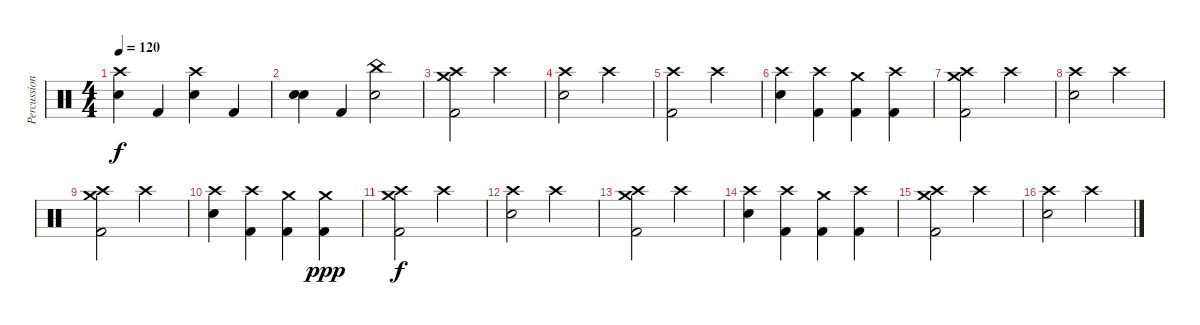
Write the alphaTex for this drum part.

\track ("Percussion" "Percussion") {instrument percussion}
\staff {score}
\articulation defaults
\ts (4 4)
\tempo 120
\clef neutral
\ks c
("Crash high (hit)" "Electric Snare (hit)").4{dy f} "Kick (hit) 2".4 ("Crash high (hit)" "Electric Snare (hit)").4 "Kick (hit) 2".4 |
("Electric Snare (hit)" "Electric Snare (hit)").4{bu 240} "Kick (hit) 2".4 ("China (hit)" "Electric Snare (hit)").2 |
("Crash high (hit)" "Crash medium (hit)" "Kick (hit) 2").2 "Crash high (hit)".2 |
("Crash high (hit)" "Electric Snare (hit)").2 "Crash high (hit)".2 |
("Crash high (hit)" "Kick (hit) 2").2 "Crash high (hit)".2 |
("Crash high (hit)" "Electric Snare (hit)").4 ("Crash high (hit)" "Kick (hit) 2").4 ("Crash medium (hit)" "Kick (hit) 2").4 ("Crash high (hit)" "Kick (hit) 2").4 |
("Crash high (hit)" "Crash medium (hit)" "Kick (hit) 2").2 "Crash high (hit)".2 |
("Crash high (hit)" "Electric Snare (hit)").2 "Crash high (hit)".2 |
("Crash high (hit)" "Crash medium (hit)" "Kick (hit) 2").2 "Crash high (hit)".2 |
("Crash high (hit)" "Electric Snare (hit)").4 ("Crash high (hit)" "Kick (hit) 2").4 ("Crash medium (hit)" "Kick (hit) 2").4 ("Crash medium (hit)" "Kick (hit) 2").4{dy ppp} |
("Crash high (hit)" "Crash medium (hit)" "Kick (hit) 2").2{dy f} "Crash high (hit)".2 |
("Crash high (hit)" "Electric Snare (hit)").2 "Crash high (hit)".2 |
("Crash high (hit)" "Crash medium (hit)" "Kick (hit) 2").2 "Crash high (hit)".2 |
("Crash high (hit)" "Electric Snare (hit)").4 ("Crash high (hit)" "Kick (hit) 2").4 ("Crash medium (hit)" "Kick (hit) 2").4 ("Crash high (hit)" "Kick (hit) 2").4 |
("Crash high (hit)" "Crash medium (hit)" "Kick (hit) 2").2 "Crash high (hit)".2 |
("Crash high (hit)" "Electric Snare (hit)").2 "Crash high (hit)".2
